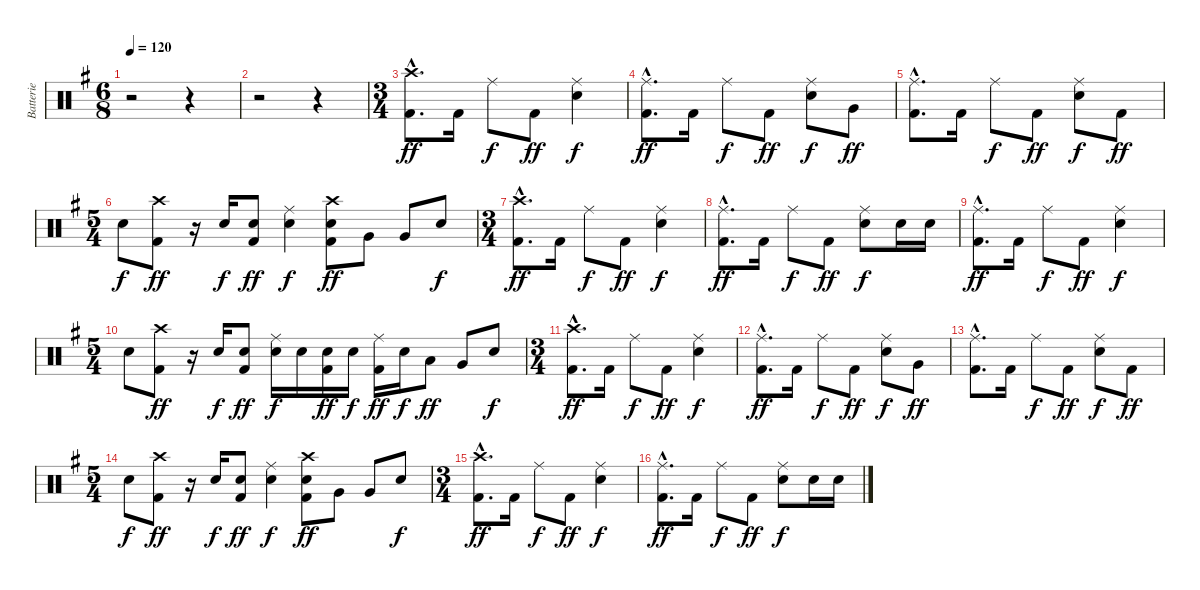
\track ("Batterie" "Batterie") {instrument percussion}
\staff {score}
\articulation defaults
\ts (6 8)
\tempo 120
\clef neutral
\ks g
r.2{dy ff} r.4 |
r.2 r.4 |
\ts (3 4)
("Crash high (hit)"{hac} "Kick (hit) 2"{hac}).8{d} "Kick (hit) 2".16 "Ride (middle)".8{dy f} "Kick (hit) 2".8{dy ff} ("Ride (middle)" "Snare (hit) 2").4{dy f} |
("Ride (middle)"{hac} "Kick (hit) 2"{hac}).8{d dy ff} "Kick (hit) 2".16 "Ride (middle)".8{dy f} "Kick (hit) 2".8{dy ff} ("Ride (middle)" "Snare (hit) 2").8{dy f} "Very Low Tom (hit)".8{dy ff} |
("Ride (middle)"{hac} "Kick (hit) 2"{hac}).8{d} "Kick (hit) 2".16 "Ride (middle)".8{dy f} "Kick (hit) 2".8{dy ff} ("Ride (middle)" "Snare (hit) 2").8{dy f} "Kick (hit) 2".8{dy ff} |
\ts (5 4)
"Snare (hit) 2".8{dy f} ("Crash high (hit)" "Kick (hit) 2").8{dy ff} r.16 "Snare (hit) 2".16{dy f} ("Snare (hit) 2" "Kick (hit) 2").8{dy ff} ("Ride (middle)" "Snare (hit) 2").4{dy f} ("Crash high (hit)" "Snare (hit) 2" "Kick (hit) 2").8{dy ff} "Very Low Tom (hit)".8 "Very Low Tom (hit)".8 "Snare (hit) 2".8{dy f} |
\ts (3 4)
("Crash high (hit)"{hac} "Kick (hit) 2"{hac}).8{d dy ff} "Kick (hit) 2".16 "Ride (middle)".8{dy f} "Kick (hit) 2".8{dy ff} ("Ride (middle)" "Snare (hit) 2").4{dy f} |
("Ride (middle)"{hac} "Kick (hit) 2"{hac}).8{d dy ff} "Kick (hit) 2".16 "Ride (middle)".8{dy f} "Kick (hit) 2".8{dy ff} ("Ride (middle)" "Snare (hit) 2").8{dy f} "Snare (hit) 2".16 "Snare (hit) 2".16 |
("Ride (middle)"{hac} "Kick (hit) 2"{hac}).8{d dy ff} "Kick (hit) 2".16 "Ride (middle)".8{dy f} "Kick (hit) 2".8{dy ff} ("Ride (middle)" "Snare (hit) 2").4{dy f} |
\ts (5 4)
"Snare (hit) 2".8 ("Crash high (hit)" "Kick (hit) 2").8{dy ff} r.16 "Snare (hit) 2".16{dy f} ("Snare (hit) 2" "Kick (hit) 2").8{dy ff} ("Ride (middle)" "Snare (hit) 2").16{dy f} "Snare (hit) 2".16 ("Snare (hit) 2" "Kick (hit) 2").16{dy ff} "Snare (hit) 2".16{dy f} ("Ride (middle)" "Kick (hit) 2").16{dy ff} "Snare (hit) 2".16{dy f} "Low Tom (hit)".8{dy ff} "Very Low Tom (hit)".8 "Snare (hit) 2".8{dy f} |
\ts (3 4)
("Crash high (hit)"{hac} "Kick (hit) 2"{hac}).8{d dy ff} "Kick (hit) 2".16 "Ride (middle)".8{dy f} "Kick (hit) 2".8{dy ff} ("Ride (middle)" "Snare (hit) 2").4{dy f} |
("Ride (middle)"{hac} "Kick (hit) 2"{hac}).8{d dy ff} "Kick (hit) 2".16 "Ride (middle)".8{dy f} "Kick (hit) 2".8{dy ff} ("Ride (middle)" "Snare (hit) 2").8{dy f} "Very Low Tom (hit)".8{dy ff} |
("Ride (middle)"{hac} "Kick (hit) 2"{hac}).8{d} "Kick (hit) 2".16 "Ride (middle)".8{dy f} "Kick (hit) 2".8{dy ff} ("Ride (middle)" "Snare (hit) 2").8{dy f} "Kick (hit) 2".8{dy ff} |
\ts (5 4)
"Snare (hit) 2".8{dy f} ("Crash high (hit)" "Kick (hit) 2").8{dy ff} r.16 "Snare (hit) 2".16{dy f} ("Snare (hit) 2" "Kick (hit) 2").8{dy ff} ("Ride (middle)" "Snare (hit) 2").4{dy f} ("Crash high (hit)" "Snare (hit) 2" "Kick (hit) 2").8{dy ff} "Very Low Tom (hit)".8 "Very Low Tom (hit)".8 "Snare (hit) 2".8{dy f} |
\ts (3 4)
("Crash high (hit)"{hac} "Kick (hit) 2"{hac}).8{d dy ff} "Kick (hit) 2".16 "Ride (middle)".8{dy f} "Kick (hit) 2".8{dy ff} ("Ride (middle)" "Snare (hit) 2").4{dy f} |
("Ride (middle)"{hac} "Kick (hit) 2"{hac}).8{d dy ff} "Kick (hit) 2".16 "Ride (middle)".8{dy f} "Kick (hit) 2".8{dy ff} ("Ride (middle)" "Snare (hit) 2").8{dy f} "Snare (hit) 2".16 "Snare (hit) 2".16
